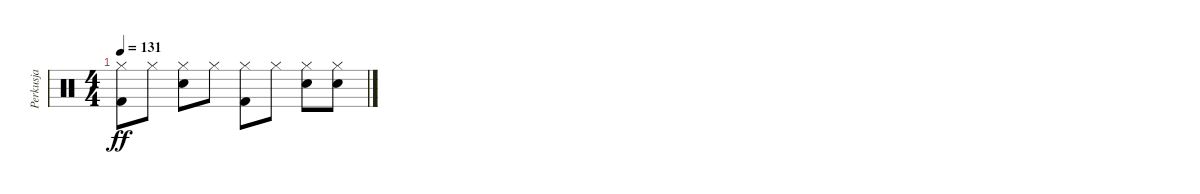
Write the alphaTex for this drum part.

\track ("Perkusja" "Perkusja") {instrument percussion}
\staff {score}
\articulation defaults
\ts (4 4)
\tempo 131
\clef neutral
\ks c
("Hi-Hat (closed)" "Kick (hit) 2").8{dy ff} "Hi-Hat (closed)".8 ("Electric Snare (hit)" "Hi-Hat (closed)").8 "Hi-Hat (closed)".8 ("Kick (hit) 2" "Hi-Hat (closed)").8 "Hi-Hat (closed)".8 ("Hi-Hat (closed)" "Electric Snare (hit)").8 ("Hi-Hat (closed)" "Electric Snare (hit)").8
